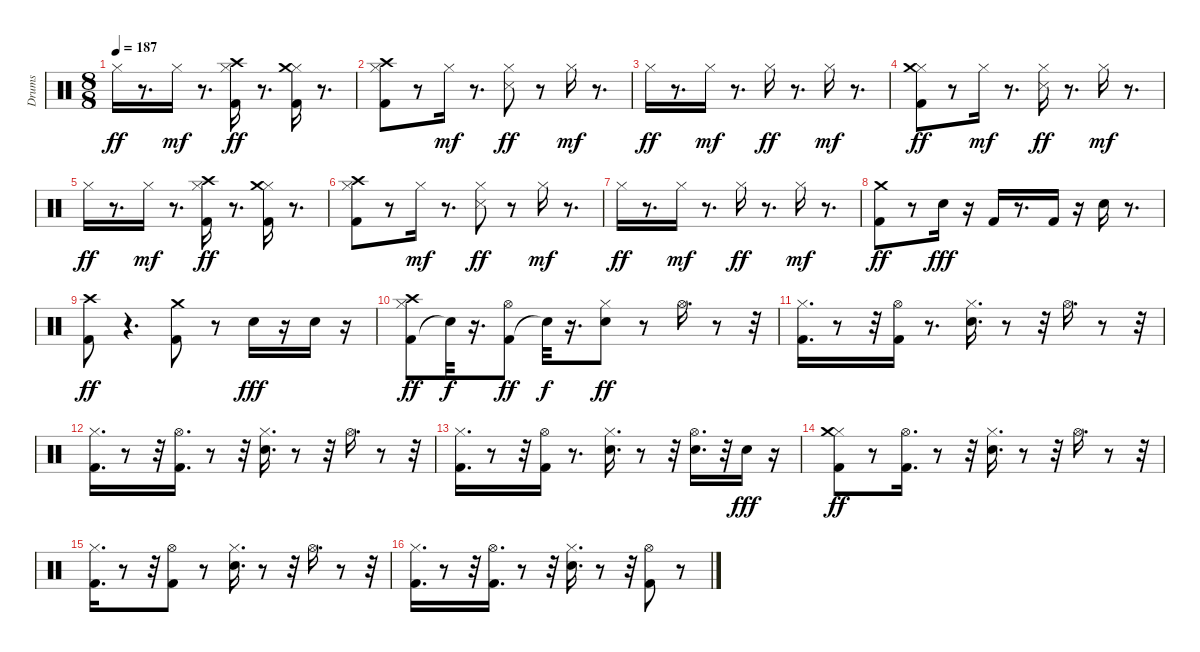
\track ("Drums" "Drums") {instrument percussion}
\staff {score}
\articulation defaults
\ts (8 8)
\tempo 187
\clef neutral
\ks c "Hi-Hat (closed)".16{dy ff}
r.8{d} "Hi-Hat (closed)".16{dy mf} r.8{d} ("Kick (hit) 2" "Hi-Hat (closed)" "Crash high (hit)").16{dy ff} r.8{d} ("Kick (hit) 2" "Hi-Hat (closed)" "Crash medium (hit)").16 r.8{d} |
("Kick (hit) 2" "Hi-Hat (closed)" "Crash high (hit)").8 r.8 "Hi-Hat (closed)".16{dy mf} r.8{d} ("Snare (side stick) 3" "Hi-Hat (closed)").8{dy ff} r.8 "Hi-Hat (closed)".16{dy mf} r.8{d} |
"Hi-Hat (closed)".16{dy ff} r.8{d} "Hi-Hat (closed)".16{dy mf} r.8{d} "Hi-Hat (closed)".16{dy ff} r.8{d} "Hi-Hat (closed)".16{dy mf} r.8{d} |
("Kick (hit) 2" "Hi-Hat (closed)" "Crash medium (hit)").8{dy ff} r.8 "Hi-Hat (closed)".16{dy mf} r.8{d} ("Snare (side stick) 3" "Hi-Hat (closed)").16{dy ff} r.8{d} "Hi-Hat (closed)".16{dy mf} r.8{d} |
"Hi-Hat (closed)".16{dy ff} r.8{d} "Hi-Hat (closed)".16{dy mf} r.8{d} ("Kick (hit) 2" "Hi-Hat (closed)" "Crash high (hit)").16{dy ff} r.8{d} ("Kick (hit) 2" "Hi-Hat (closed)" "Crash medium (hit)").16 r.8{d} |
("Kick (hit) 2" "Hi-Hat (closed)" "Crash high (hit)").8 r.8 "Hi-Hat (closed)".16{dy mf} r.8{d} ("Snare (side stick) 3" "Hi-Hat (closed)").8{dy ff} r.8 "Hi-Hat (closed)".16{dy mf} r.8{d} |
"Hi-Hat (closed)".16{dy ff} r.8{d} "Hi-Hat (closed)".16{dy mf} r.8{d} "Hi-Hat (closed)".16{dy ff} r.8{d} "Hi-Hat (closed)".16{dy mf} r.8{d} |
("Kick (hit) 2" "Crash medium (hit)").8{dy ff} r.8 "Snare (hit) 2".16{dy fff} r.16 "Kick (hit) 2".16 r.8{d} "Kick (hit) 2".16 r.16 "Snare (hit) 2".16 r.8{d} |
("Kick (hit) 2" "Crash high (hit)").8{dy ff} r.4{d} ("Kick (hit) 2" "Crash medium (hit)").8 r.8 "Snare (hit) 2".16{dy fff} r.16 "Snare (hit) 2".16 r.16 |
("Kick (hit) 2" "Hi-Hat (closed)" "Crash high (hit)").8{dy ff} "Snare (hit)"{t}.32{dy f} r.16{d} ("Kick (hit) 2" "Hi-Hat (open)").8{dy ff} "Snare (hit)"{t}.32{dy f} r.16{d} ("Snare (hit) 2" "Hi-Hat (closed)").8{dy ff} r.8 "Hi-Hat (open)".16{d} r.8 r.32 |
("Kick (hit) 2" "Hi-Hat (closed)").16{d} r.8 r.32 ("Kick (hit) 2" "Hi-Hat (open)").16 r.8{d} ("Snare (hit) 2" "Hi-Hat (closed)").16{d} r.8 r.32 "Hi-Hat (open)".16{d} r.8 r.32 |
("Kick (hit) 2" "Hi-Hat (closed)").16{d} r.8 r.32 ("Kick (hit) 2" "Hi-Hat (open)").16{d} r.8 r.32 ("Snare (hit) 2" "Hi-Hat (closed)").16{d} r.8 r.32 "Hi-Hat (open)".16{d} r.8 r.32 |
("Kick (hit) 2" "Hi-Hat (closed)").16{d} r.8 r.32 ("Kick (hit) 2" "Hi-Hat (open)").16 r.8{d} ("Snare (hit) 2" "Hi-Hat (closed)").16{d} r.8 r.32 ("Snare (hit) 2" "Hi-Hat (open)").16{d} r.32 "Snare (hit) 2".16{dy fff} r.16 |
("Kick (hit) 2" "Hi-Hat (closed)" "Crash medium (hit)").8{dy ff} r.8 ("Kick (hit) 2" "Hi-Hat (open)").16{d} r.8 r.32 ("Snare (hit) 2" "Hi-Hat (closed)").16{d} r.8 r.32 "Hi-Hat (open)".16{d} r.8 r.32 |
("Kick (hit) 2" "Hi-Hat (closed)").16{d} r.8 r.32 ("Kick (hit) 2" "Hi-Hat (open)").8 r.8 ("Snare (hit) 2" "Hi-Hat (closed)").16{d} r.8 r.32 "Hi-Hat (open)".16{d} r.8 r.32 |
("Kick (hit) 2" "Hi-Hat (closed)").16{d} r.8 r.32 ("Kick (hit) 2" "Hi-Hat (open)").16{d} r.8 r.32 ("Snare (hit) 2" "Hi-Hat (closed)").16{d} r.8 r.32 ("Kick (hit) 2" "Hi-Hat (open)").8 r.8
